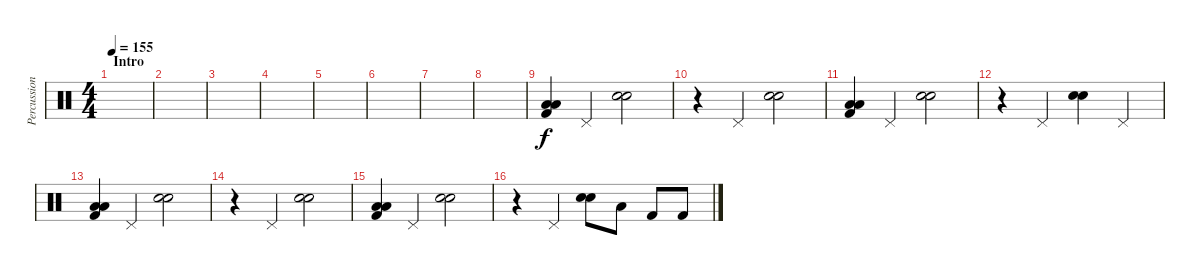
\track ("Percussion" "Percussion") {instrument percussion}
\staff {score}
\articulation defaults
\ts (4 4)
\section ("" "Intro")
\tempo 155
\clef neutral
\ks c
|
|
|
|
|
|
|
|
("Low Floor Tom (hit)" "Low Floor Tom (hit)" "Kick (hit) 2").4 "Pedal Hi-Hat (hit)".4 ("Electric Snare (hit)" "Electric Snare (hit)").2{bu 240} |
r.4 "Pedal Hi-Hat (hit)".4 ("Electric Snare (hit)" "Electric Snare (hit)").2{bu 240} |
("Low Floor Tom (hit)" "Low Floor Tom (hit)" "Kick (hit) 2").4 "Pedal Hi-Hat (hit)".4 ("Electric Snare (hit)" "Electric Snare (hit)").2{bu 240} |
r.4 "Pedal Hi-Hat (hit)".4 ("Electric Snare (hit)" "Electric Snare (hit)").4{bu 240} "Pedal Hi-Hat (hit)".4 |
("Low Floor Tom (hit)" "Low Floor Tom (hit)" "Kick (hit) 2").4 "Pedal Hi-Hat (hit)".4 ("Electric Snare (hit)" "Electric Snare (hit)").2{bu 240} |
r.4 "Pedal Hi-Hat (hit)".4 ("Electric Snare (hit)" "Electric Snare (hit)").2{bu 240} |
("Low Floor Tom (hit)" "Low Floor Tom (hit)" "Kick (hit) 2").4 "Pedal Hi-Hat (hit)".4 ("Electric Snare (hit)" "Electric Snare (hit)").2{bu 240} |
r.4 "Pedal Hi-Hat (hit)".4 ("Electric Snare (hit)" "Electric Snare (hit)").8{bu 240} "Low Tom (hit)".8 "Kick (hit) 2".8 "Kick (hit) 2".8
